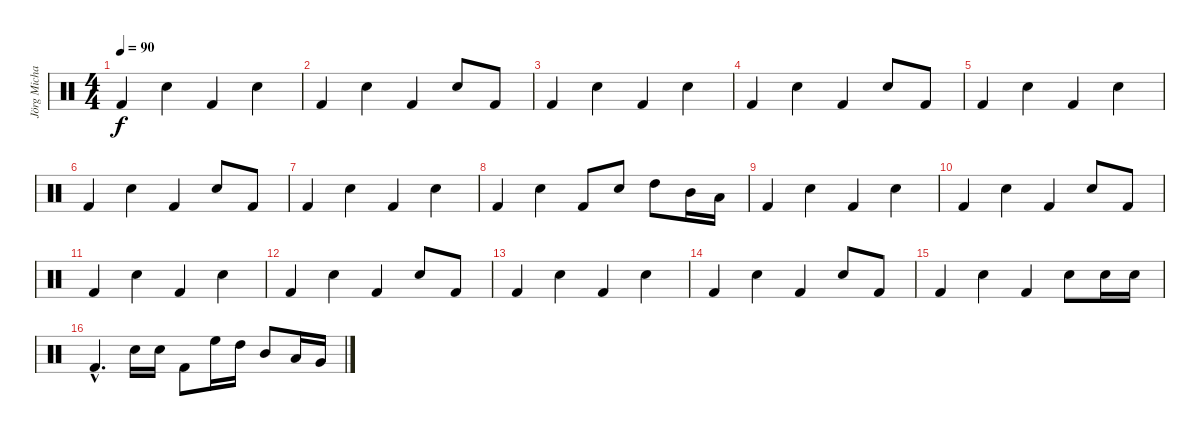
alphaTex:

\track ("Jörg Michael Drums" "Jörg Micha") {instrument percussion}
\staff {score}
\articulation defaults
\ts (4 4)
\tempo 90
\clef neutral
\ks c "Kick (hit) 2".4{dy f} "Electric Snare (hit)".4 "Kick (hit) 2".4 "Electric Snare (hit)".4
|
"Kick (hit) 2".4 "Electric Snare (hit)".4 "Kick (hit) 2".4 "Electric Snare (hit)".8 "Kick (hit) 2".8 |
"Kick (hit) 2".4 "Electric Snare (hit)".4 "Kick (hit) 2".4 "Electric Snare (hit)".4 |
"Kick (hit) 2".4 "Electric Snare (hit)".4 "Kick (hit) 2".4 "Electric Snare (hit)".8 "Kick (hit) 2".8 |
"Kick (hit) 2".4 "Electric Snare (hit)".4 "Kick (hit) 2".4 "Electric Snare (hit)".4 |
"Kick (hit) 2".4 "Electric Snare (hit)".4 "Kick (hit) 2".4 "Electric Snare (hit)".8 "Kick (hit) 2".8 |
"Kick (hit) 2".4 "Electric Snare (hit)".4 "Kick (hit) 2".4 "Electric Snare (hit)".4 |
"Kick (hit) 2".4 "Electric Snare (hit)".4 "Kick (hit) 2".8 "Electric Snare (hit)".8 "High Tom (hit)".8 "Mid Tom (hit)".16 "Low Tom (hit)".16 |
"Kick (hit) 2".4 "Electric Snare (hit)".4 "Kick (hit) 2".4 "Electric Snare (hit)".4 |
"Kick (hit) 2".4 "Electric Snare (hit)".4 "Kick (hit) 2".4 "Electric Snare (hit)".8 "Kick (hit) 2".8 |
"Kick (hit) 2".4 "Electric Snare (hit)".4 "Kick (hit) 2".4 "Electric Snare (hit)".4 |
"Kick (hit) 2".4 "Electric Snare (hit)".4 "Kick (hit) 2".4 "Electric Snare (hit)".8 "Kick (hit) 2".8 |
"Kick (hit) 2".4 "Electric Snare (hit)".4 "Kick (hit) 2".4 "Electric Snare (hit)".4 |
"Kick (hit) 2".4 "Electric Snare (hit)".4 "Kick (hit) 2".4 "Electric Snare (hit)".8 "Kick (hit) 2".8 |
"Kick (hit) 2".4 "Electric Snare (hit)".4 "Kick (hit) 2".4 "Electric Snare (hit)".8 "Electric Snare (hit)".16 "Electric Snare (hit)".16 |
"Kick (hit) 2"{hac}.4{d} "Electric Snare (hit)".16 "Electric Snare (hit)".16 "Kick (hit) 2".8 "High Floor Tom (hit)".16 "High Tom (hit)".16 "Mid Tom (hit)".8 "Low Tom (hit)".16 "Very Low Tom (hit)".16
